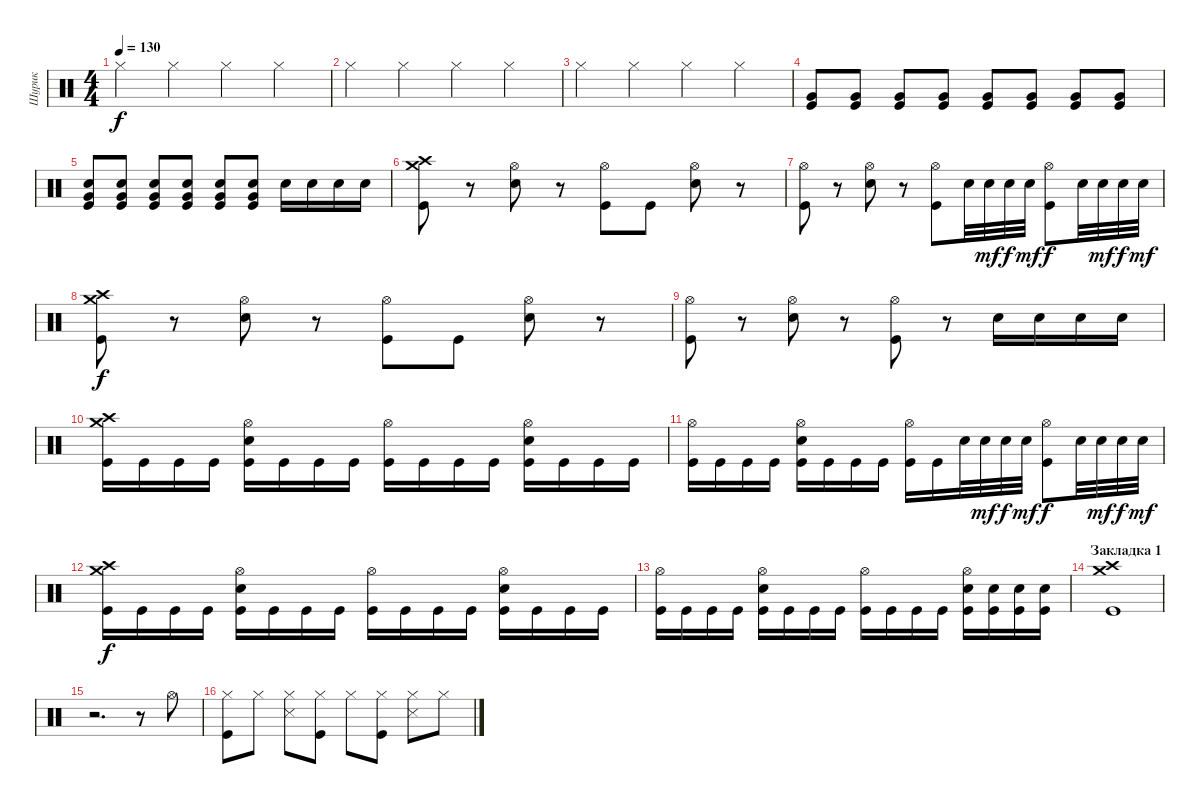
\track ("Шурик" "Шурик") {instrument percussion}
\staff {score}
\articulation defaults
\ts (4 4)
\tempo 130
\clef neutral
\ks c "Hi-Hat (closed)".4{dy f} "Hi-Hat (closed)".4 "Hi-Hat (closed)".4 "Hi-Hat (closed)".4
|
"Hi-Hat (closed)".4 "Hi-Hat (closed)".4 "Hi-Hat (closed)".4 "Hi-Hat (closed)".4 |
"Hi-Hat (closed)".4 "Hi-Hat (closed)".4 "Hi-Hat (closed)".4 "Hi-Hat (closed)".4 |
("Very Low Tom (hit)" "Kick (hit)").8 ("Very Low Tom (hit)" "Kick (hit)").8 ("Very Low Tom (hit)" "Kick (hit)").8 ("Very Low Tom (hit)" "Kick (hit)").8 ("Very Low Tom (hit)" "Kick (hit)").8 ("Very Low Tom (hit)" "Kick (hit)").8 ("Very Low Tom (hit)" "Kick (hit)").8 ("Very Low Tom (hit)" "Kick (hit)").8 |
("Very Low Tom (hit)" "Electric Snare (hit)" "Kick (hit)").8 ("Very Low Tom (hit)" "Electric Snare (hit)" "Kick (hit)").8 ("Very Low Tom (hit)" "Electric Snare (hit)" "Kick (hit)").8 ("Very Low Tom (hit)" "Electric Snare (hit)" "Kick (hit)").8 ("Very Low Tom (hit)" "Electric Snare (hit)" "Kick (hit)").8 ("Very Low Tom (hit)" "Electric Snare (hit)" "Kick (hit)").8 "Electric Snare (hit)".16 "Electric Snare (hit)".16 "Electric Snare (hit)".16 "Electric Snare (hit)".16 |
("Crash medium (hit)" "Crash high (hit)" "Kick (hit)").8 r.8 ("Hi-Hat (open)" "Electric Snare (hit)").8 r.8 ("Hi-Hat (open)" "Kick (hit)").8 "Kick (hit)".8 ("Hi-Hat (open)" "Electric Snare (hit)").8 r.8 |
("Hi-Hat (open)" "Kick (hit)").8 r.8 ("Hi-Hat (open)" "Electric Snare (hit)").8 r.8 ("Hi-Hat (open)" "Kick (hit)").8 "Electric Snare (hit)".32 "Electric Snare (hit)".32{dy mf} "Electric Snare (hit)".32{dy f} "Electric Snare (hit)".32{dy mf} ("Hi-Hat (open)" "Kick (hit)").8{dy f} "Electric Snare (hit)".32 "Electric Snare (hit)".32{dy mf} "Electric Snare (hit)".32{dy f} "Electric Snare (hit)".32{dy mf} |
("Crash medium (hit)" "Crash high (hit)" "Kick (hit)").8{dy f} r.8 ("Hi-Hat (open)" "Electric Snare (hit)").8 r.8 ("Hi-Hat (open)" "Kick (hit)").8 "Kick (hit)".8 ("Hi-Hat (open)" "Electric Snare (hit)").8 r.8 |
("Hi-Hat (open)" "Kick (hit)").8 r.8 ("Hi-Hat (open)" "Electric Snare (hit)").8 r.8 ("Hi-Hat (open)" "Kick (hit)").8 r.8 "Electric Snare (hit)".16 "Electric Snare (hit)".16 "Electric Snare (hit)".16 "Electric Snare (hit)".16 |
("Crash medium (hit)" "Crash high (hit)" "Kick (hit)").16 "Kick (hit)".16 "Kick (hit)".16 "Kick (hit)".16 ("Hi-Hat (open)" "Electric Snare (hit)" "Kick (hit)").16 "Kick (hit)".16 "Kick (hit)".16 "Kick (hit)".16 ("Hi-Hat (open)" "Kick (hit)").16 "Kick (hit)".16 "Kick (hit)".16 "Kick (hit)".16 ("Hi-Hat (open)" "Electric Snare (hit)" "Kick (hit)").16 "Kick (hit)".16 "Kick (hit)".16 "Kick (hit)".16 |
("Hi-Hat (open)" "Kick (hit)").16 "Kick (hit)".16 "Kick (hit)".16 "Kick (hit)".16 ("Hi-Hat (open)" "Electric Snare (hit)" "Kick (hit)").16 "Kick (hit)".16 "Kick (hit)".16 "Kick (hit)".16 ("Hi-Hat (open)" "Kick (hit)").16 "Kick (hit)".16 "Electric Snare (hit)".32 "Electric Snare (hit)".32{dy mf} "Electric Snare (hit)".32{dy f} "Electric Snare (hit)".32{dy mf} ("Hi-Hat (open)" "Kick (hit)").8{dy f} "Electric Snare (hit)".32 "Electric Snare (hit)".32{dy mf} "Electric Snare (hit)".32{dy f} "Electric Snare (hit)".32{dy mf} |
("Crash medium (hit)" "Crash high (hit)" "Kick (hit)").16{dy f} "Kick (hit)".16 "Kick (hit)".16 "Kick (hit)".16 ("Hi-Hat (open)" "Electric Snare (hit)" "Kick (hit)").16 "Kick (hit)".16 "Kick (hit)".16 "Kick (hit)".16 ("Hi-Hat (open)" "Kick (hit)").16 "Kick (hit)".16 "Kick (hit)".16 "Kick (hit)".16 ("Hi-Hat (open)" "Electric Snare (hit)" "Kick (hit)").16 "Kick (hit)".16 "Kick (hit)".16 "Kick (hit)".16 |
("Hi-Hat (open)" "Kick (hit)").16 "Kick (hit)".16 "Kick (hit)".16 "Kick (hit)".16 ("Hi-Hat (open)" "Electric Snare (hit)" "Kick (hit)").16 "Kick (hit)".16 "Kick (hit)".16 "Kick (hit)".16 ("Hi-Hat (open)" "Kick (hit)").16 "Kick (hit)".16 "Kick (hit)".16 "Kick (hit)".16 ("Hi-Hat (open)" "Electric Snare (hit)" "Kick (hit)").16 ("Electric Snare (hit)" "Kick (hit)").16 ("Electric Snare (hit)" "Kick (hit)").16 ("Electric Snare (hit)" "Kick (hit)").16 |
\section ("" "Закладка 1")
("Kick (hit)" "Crash high (hit)" "Crash medium (hit)").1 |
r.2{d} r.8 "Hi-Hat (open)".8 |
("Kick (hit)" "Hi-Hat (closed)").8 "Hi-Hat (closed)".8 ("Snare (side stick) 3" "Hi-Hat (closed)").8 ("Kick (hit)" "Hi-Hat (closed)").8 "Hi-Hat (closed)".8 ("Kick (hit)" "Hi-Hat (closed)").8 ("Snare (side stick) 3" "Hi-Hat (closed)").8 "Hi-Hat (closed)".8
